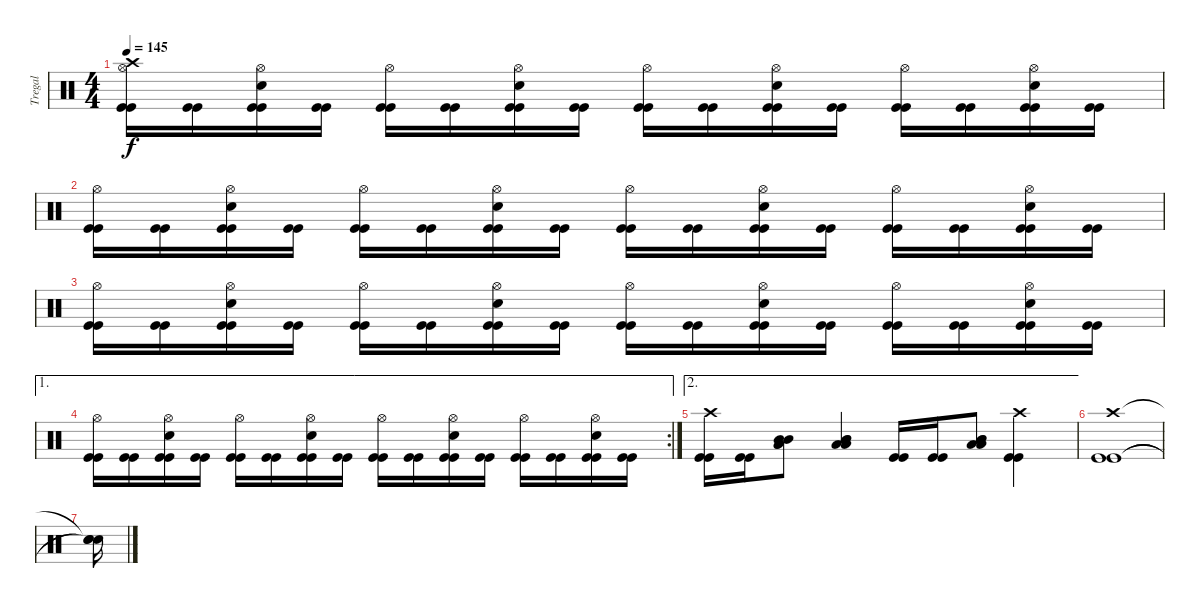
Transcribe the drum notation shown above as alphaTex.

\track ("Tregal" "Tregal") {instrument percussion}
\staff {score}
\articulation defaults
\ts (4 4)
\tempo 145
\clef neutral
\ks c
("Kick (hit)" "Kick (hit)" "Hi-Hat (open)" "Crash high (hit)").16{dy f} ("Kick (hit)" "Kick (hit)").16 ("Kick (hit)" "Kick (hit)" "Hi-Hat (open)" "Snare (hit) 2").16 ("Kick (hit)" "Kick (hit)").16 ("Kick (hit)" "Kick (hit)" "Hi-Hat (open)").16 ("Kick (hit)" "Kick (hit)").16 ("Kick (hit)" "Kick (hit)" "Hi-Hat (open)" "Snare (hit) 2").16 ("Kick (hit)" "Kick (hit)").16 ("Kick (hit)" "Kick (hit)" "Hi-Hat (open)").16 ("Kick (hit)" "Kick (hit)").16 ("Kick (hit)" "Kick (hit)" "Hi-Hat (open)" "Snare (hit) 2").16 ("Kick (hit)" "Kick (hit)").16 ("Kick (hit)" "Kick (hit)" "Hi-Hat (open)").16 ("Kick (hit)" "Kick (hit)").16 ("Kick (hit)" "Kick (hit)" "Hi-Hat (open)" "Snare (hit) 2").16 ("Kick (hit)" "Kick (hit)").16 |
("Kick (hit)" "Kick (hit)" "Hi-Hat (open)").16 ("Kick (hit)" "Kick (hit)").16 ("Kick (hit)" "Kick (hit)" "Hi-Hat (open)" "Snare (hit) 2").16 ("Kick (hit)" "Kick (hit)").16 ("Kick (hit)" "Kick (hit)" "Hi-Hat (open)").16 ("Kick (hit)" "Kick (hit)").16 ("Kick (hit)" "Kick (hit)" "Hi-Hat (open)" "Snare (hit) 2").16 ("Kick (hit)" "Kick (hit)").16 ("Kick (hit)" "Kick (hit)" "Hi-Hat (open)").16 ("Kick (hit)" "Kick (hit)").16 ("Kick (hit)" "Kick (hit)" "Hi-Hat (open)" "Snare (hit) 2").16 ("Kick (hit)" "Kick (hit)").16 ("Kick (hit)" "Kick (hit)" "Hi-Hat (open)").16 ("Kick (hit)" "Kick (hit)").16 ("Kick (hit)" "Kick (hit)" "Hi-Hat (open)" "Snare (hit) 2").16 ("Kick (hit)" "Kick (hit)").16 |
("Kick (hit)" "Kick (hit)" "Hi-Hat (open)").16 ("Kick (hit)" "Kick (hit)").16 ("Kick (hit)" "Kick (hit)" "Hi-Hat (open)" "Snare (hit) 2").16 ("Kick (hit)" "Kick (hit)").16 ("Kick (hit)" "Kick (hit)" "Hi-Hat (open)").16 ("Kick (hit)" "Kick (hit)").16 ("Kick (hit)" "Kick (hit)" "Hi-Hat (open)" "Snare (hit) 2").16 ("Kick (hit)" "Kick (hit)").16 ("Kick (hit)" "Kick (hit)" "Hi-Hat (open)").16 ("Kick (hit)" "Kick (hit)").16 ("Kick (hit)" "Kick (hit)" "Hi-Hat (open)" "Snare (hit) 2").16 ("Kick (hit)" "Kick (hit)").16 ("Kick (hit)" "Kick (hit)" "Hi-Hat (open)").16 ("Kick (hit)" "Kick (hit)").16 ("Kick (hit)" "Kick (hit)" "Hi-Hat (open)" "Snare (hit) 2").16 ("Kick (hit)" "Kick (hit)").16 |
\ae 1
\rc 2
("Kick (hit)" "Kick (hit)" "Hi-Hat (open)").16 ("Kick (hit)" "Kick (hit)").16 ("Kick (hit)" "Kick (hit)" "Hi-Hat (open)" "Snare (hit) 2").16 ("Kick (hit)" "Kick (hit)").16 ("Kick (hit)" "Kick (hit)" "Hi-Hat (open)").16 ("Kick (hit)" "Kick (hit)").16 ("Kick (hit)" "Kick (hit)" "Hi-Hat (open)" "Snare (hit) 2").16 ("Kick (hit)" "Kick (hit)").16 ("Kick (hit)" "Kick (hit)" "Hi-Hat (open)").16 ("Kick (hit)" "Kick (hit)").16 ("Kick (hit)" "Kick (hit)" "Hi-Hat (open)" "Snare (hit) 2").16 ("Kick (hit)" "Kick (hit)").16 ("Kick (hit)" "Kick (hit)" "Hi-Hat (open)").16 ("Kick (hit)" "Kick (hit)").16 ("Kick (hit)" "Kick (hit)" "Hi-Hat (open)" "Snare (hit) 2").16 ("Kick (hit)" "Kick (hit)").16 |
\ae 2
("Kick (hit)" "Kick (hit)" "Crash high (hit)").16 ("Kick (hit)" "Kick (hit)").16 ("Low Tom (hit)" "Low Tom (hit)" "Mid Tom (hit)" "Mid Tom (hit)").8 ("Low Tom (hit)" "Low Tom (hit)" "Mid Tom (hit)" "Mid Tom (hit)").4 ("Kick (hit)" "Kick (hit)").16 ("Kick (hit)" "Kick (hit)").16 ("Low Tom (hit)" "Low Tom (hit)" "Mid Tom (hit)" "Mid Tom (hit)").8 ("Kick (hit)" "Kick (hit)" "Crash high (hit)").4 |
("Crash high (hit)" "Kick (hit)" "Kick (hit)").1 |
("Snare (hit)"{t} "Snare (hit)"{t} "Snare (hit)"{t}).16
